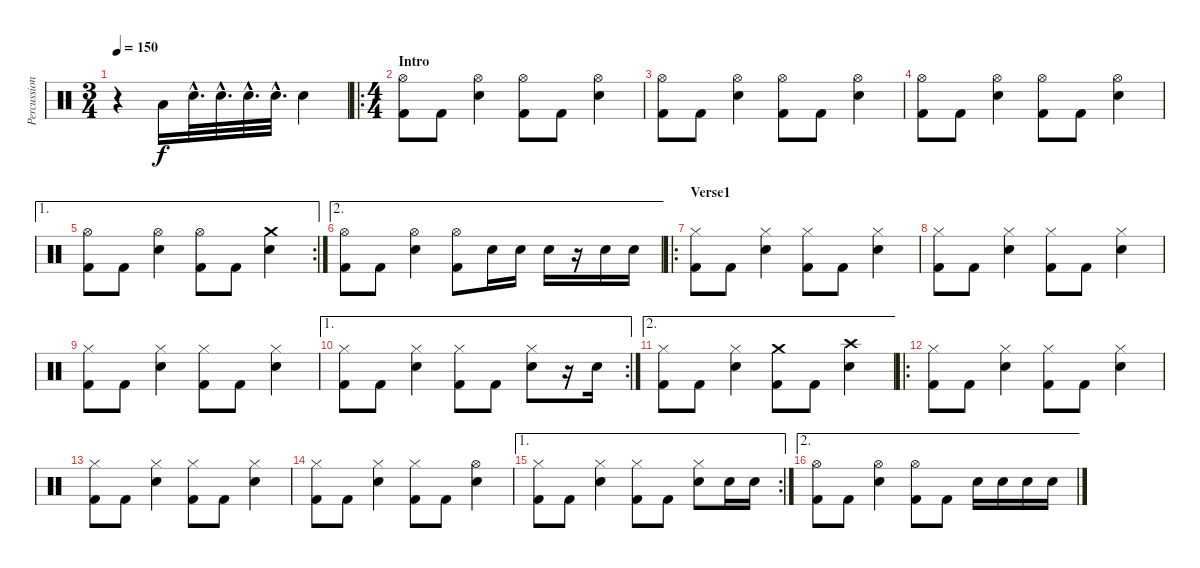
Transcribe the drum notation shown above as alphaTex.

\track ("Percussion" "Percussion") {instrument percussion}
\staff {score}
\articulation defaults
\ts (3 4)
\tempo 150
\tempo 120
\tempo 150
\clef neutral
\ks c
r.4{dy f} "Low Floor Tom (hit)".16 "Electric Snare (hit)"{hac}.32{d} "Electric Snare (hit)"{hac}.32{d} "Electric Snare (hit)"{hac}.32{d} "Electric Snare (hit)"{hac}.32{d} "Electric Snare (hit)".4 |
\ro
\ts (4 4)
\section ("" "Intro")
("Hi-Hat (open)" "Kick (hit) 2").8 "Kick (hit) 2".8 ("Hi-Hat (open)" "Electric Snare (hit)").4 ("Hi-Hat (open)" "Kick (hit) 2").8 "Kick (hit) 2".8 ("Hi-Hat (open)" "Electric Snare (hit)").4 |
("Hi-Hat (open)" "Kick (hit) 2").8 "Kick (hit) 2".8 ("Hi-Hat (open)" "Electric Snare (hit)").4 ("Hi-Hat (open)" "Kick (hit) 2").8 "Kick (hit) 2".8 ("Hi-Hat (open)" "Electric Snare (hit)").4 |
("Hi-Hat (open)" "Kick (hit) 2").8 "Kick (hit) 2".8 ("Hi-Hat (open)" "Electric Snare (hit)").4 ("Hi-Hat (open)" "Kick (hit) 2").8 "Kick (hit) 2".8 ("Hi-Hat (open)" "Electric Snare (hit)").4 |
\ae 1
\rc 2
("Hi-Hat (open)" "Kick (hit) 2").8 "Kick (hit) 2".8 ("Hi-Hat (open)" "Electric Snare (hit)").4 ("Hi-Hat (open)" "Kick (hit) 2").8 "Kick (hit) 2".8 ("Crash medium (hit)" "Electric Snare (hit)").4 |
\ae 2
("Hi-Hat (open)" "Kick (hit) 2").8 "Kick (hit) 2".8 ("Hi-Hat (open)" "Electric Snare (hit)").4 ("Hi-Hat (open)" "Kick (hit) 2").8 "Electric Snare (hit)".16 "Electric Snare (hit)".16 "Electric Snare (hit)".16 r.16 "Electric Snare (hit)".16 "Electric Snare (hit)".16 |
\ro
\section ("" "Verse1")
("Hi-Hat (closed)" "Kick (hit) 2").8 "Kick (hit) 2".8 ("Hi-Hat (closed)" "Electric Snare (hit)").4 ("Hi-Hat (closed)" "Kick (hit) 2").8 "Kick (hit) 2".8 ("Hi-Hat (closed)" "Electric Snare (hit)").4 |
("Hi-Hat (closed)" "Kick (hit) 2").8 "Kick (hit) 2".8 ("Hi-Hat (closed)" "Electric Snare (hit)").4 ("Hi-Hat (closed)" "Kick (hit) 2").8 "Kick (hit) 2".8 ("Hi-Hat (closed)" "Electric Snare (hit)").4 |
("Hi-Hat (closed)" "Kick (hit) 2").8 "Kick (hit) 2".8 ("Hi-Hat (closed)" "Electric Snare (hit)").4 ("Hi-Hat (closed)" "Kick (hit) 2").8 "Kick (hit) 2".8 ("Hi-Hat (closed)" "Electric Snare (hit)").4 |
\ae 1
\rc 2
("Hi-Hat (closed)" "Kick (hit) 2").8 "Kick (hit) 2".8 ("Hi-Hat (closed)" "Electric Snare (hit)").4 ("Hi-Hat (closed)" "Kick (hit) 2").8 "Kick (hit) 2".8 ("Hi-Hat (closed)" "Electric Snare (hit)").8 r.16 "Electric Snare (hit)".16 |
\ae 2
("Hi-Hat (closed)" "Kick (hit) 2").8 "Kick (hit) 2".8 ("Hi-Hat (closed)" "Electric Snare (hit)").4 ("Crash medium (hit)" "Kick (hit) 2").8 "Kick (hit) 2".8 ("Crash high (hit)" "Electric Snare (hit)").4 |
\ro
("Hi-Hat (closed)" "Kick (hit) 2").8 "Kick (hit) 2".8 ("Hi-Hat (closed)" "Electric Snare (hit)").4 ("Hi-Hat (closed)" "Kick (hit) 2").8 "Kick (hit) 2".8 ("Hi-Hat (closed)" "Electric Snare (hit)").4 |
("Hi-Hat (closed)" "Kick (hit) 2").8 "Kick (hit) 2".8 ("Hi-Hat (closed)" "Electric Snare (hit)").4 ("Hi-Hat (closed)" "Kick (hit) 2").8 "Kick (hit) 2".8 ("Hi-Hat (closed)" "Electric Snare (hit)").4 |
("Hi-Hat (closed)" "Kick (hit) 2").8 "Kick (hit) 2".8 ("Hi-Hat (closed)" "Electric Snare (hit)").4 ("Hi-Hat (closed)" "Kick (hit) 2").8 "Kick (hit) 2".8 ("Hi-Hat (open)" "Electric Snare (hit)").4 |
\ae 1
\rc 2
("Hi-Hat (closed)" "Kick (hit) 2").8 "Kick (hit) 2".8 ("Hi-Hat (closed)" "Electric Snare (hit)").4 ("Hi-Hat (closed)" "Kick (hit) 2").8 "Kick (hit) 2".8 ("Hi-Hat (closed)" "Electric Snare (hit)").8 "Electric Snare (hit)".16 "Electric Snare (hit)".16 |
\ae 2
("Hi-Hat (open)" "Kick (hit) 2").8 "Kick (hit) 2".8 ("Hi-Hat (open)" "Electric Snare (hit)").4 ("Hi-Hat (open)" "Kick (hit) 2").8 "Kick (hit) 2".8 "Electric Snare (hit)".16 "Electric Snare (hit)".16 "Electric Snare (hit)".16 "Electric Snare (hit)".16
